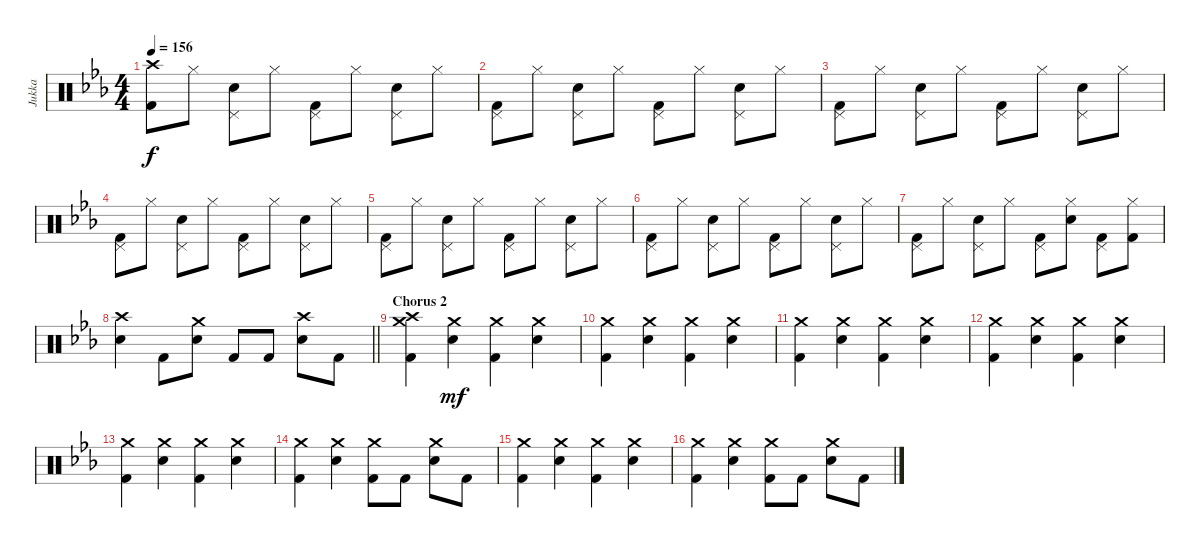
\track ("Jukka" "Jukka") {instrument percussion}
\staff {score}
\articulation defaults
\ts (4 4)
\tempo 156
\clef neutral
\ks cminor
("Crash high (hit)" "Kick (hit) 2").8{dy f} "Hi-Hat (closed)".8 ("Pedal Hi-Hat (hit)" "Electric Snare (hit)").8 "Hi-Hat (closed)".8 ("Pedal Hi-Hat (hit)" "Kick (hit) 2").8 "Hi-Hat (closed)".8 ("Pedal Hi-Hat (hit)" "Electric Snare (hit)").8 "Hi-Hat (closed)".8 |
("Pedal Hi-Hat (hit)" "Kick (hit) 2").8 "Hi-Hat (closed)".8 ("Pedal Hi-Hat (hit)" "Electric Snare (hit)").8 "Hi-Hat (closed)".8 ("Pedal Hi-Hat (hit)" "Kick (hit) 2").8 "Hi-Hat (closed)".8 ("Pedal Hi-Hat (hit)" "Electric Snare (hit)").8 "Hi-Hat (closed)".8 |
("Pedal Hi-Hat (hit)" "Kick (hit) 2").8 "Hi-Hat (closed)".8 ("Pedal Hi-Hat (hit)" "Electric Snare (hit)").8 "Hi-Hat (closed)".8 ("Pedal Hi-Hat (hit)" "Kick (hit) 2").8 "Hi-Hat (closed)".8 ("Pedal Hi-Hat (hit)" "Electric Snare (hit)").8 "Hi-Hat (closed)".8 |
("Pedal Hi-Hat (hit)" "Kick (hit) 2").8 "Hi-Hat (closed)".8 ("Pedal Hi-Hat (hit)" "Electric Snare (hit)").8 "Hi-Hat (closed)".8 ("Pedal Hi-Hat (hit)" "Kick (hit) 2").8 "Hi-Hat (closed)".8 ("Pedal Hi-Hat (hit)" "Electric Snare (hit)").8 "Hi-Hat (closed)".8 |
("Pedal Hi-Hat (hit)" "Kick (hit) 2").8 "Hi-Hat (closed)".8 ("Pedal Hi-Hat (hit)" "Electric Snare (hit)").8 "Hi-Hat (closed)".8 ("Pedal Hi-Hat (hit)" "Kick (hit) 2").8 "Hi-Hat (closed)".8 ("Pedal Hi-Hat (hit)" "Electric Snare (hit)").8 "Hi-Hat (closed)".8 |
("Pedal Hi-Hat (hit)" "Kick (hit) 2").8 "Hi-Hat (closed)".8 ("Pedal Hi-Hat (hit)" "Electric Snare (hit)").8 "Hi-Hat (closed)".8 ("Pedal Hi-Hat (hit)" "Kick (hit) 2").8 "Hi-Hat (closed)".8 ("Pedal Hi-Hat (hit)" "Electric Snare (hit)").8 "Hi-Hat (closed)".8 |
("Pedal Hi-Hat (hit)" "Kick (hit) 2").8 "Hi-Hat (closed)".8 ("Pedal Hi-Hat (hit)" "Electric Snare (hit)").8 "Hi-Hat (closed)".8 ("Pedal Hi-Hat (hit)" "Kick (hit) 2").8 ("Hi-Hat (closed)" "Electric Snare (hit)").8 ("Pedal Hi-Hat (hit)" "Kick (hit) 2").8 ("Hi-Hat (closed)" "Kick (hit) 2").8 |
\barLineRight lightlight
("Crash high (hit)" "Electric Snare (hit)").4 "Kick (hit) 2".8 ("Crash medium (hit)" "Electric Snare (hit)").8 "Kick (hit) 2".8 "Kick (hit) 2".8 ("Crash high (hit)" "Electric Snare (hit)").8 "Kick (hit) 2".8 |
\section ("" "Chorus 2")
("Crash medium (hit)" "Crash high (hit)" "Kick (hit) 2").4 ("Crash medium (hit)" "Electric Snare (hit)").4{dy mf} ("Crash medium (hit)" "Kick (hit) 2").4 ("Crash medium (hit)" "Electric Snare (hit)").4 |
("Crash medium (hit)" "Kick (hit) 2").4 ("Crash medium (hit)" "Electric Snare (hit)").4 ("Crash medium (hit)" "Kick (hit) 2").4 ("Crash medium (hit)" "Electric Snare (hit)").4 |
("Crash medium (hit)" "Kick (hit) 2").4 ("Crash medium (hit)" "Electric Snare (hit)").4 ("Crash medium (hit)" "Kick (hit) 2").4 ("Crash medium (hit)" "Electric Snare (hit)").4 |
("Crash medium (hit)" "Kick (hit) 2").4 ("Crash medium (hit)" "Electric Snare (hit)").4 ("Crash medium (hit)" "Kick (hit) 2").4 ("Crash medium (hit)" "Electric Snare (hit)").4 |
("Crash medium (hit)" "Kick (hit) 2").4 ("Crash medium (hit)" "Electric Snare (hit)").4 ("Crash medium (hit)" "Kick (hit) 2").4 ("Crash medium (hit)" "Electric Snare (hit)").4 |
("Crash medium (hit)" "Kick (hit) 2").4 ("Crash medium (hit)" "Electric Snare (hit)").4 ("Crash medium (hit)" "Kick (hit) 2").8 "Kick (hit) 2".8 ("Crash medium (hit)" "Electric Snare (hit)").8 "Kick (hit) 2".8 |
("Crash medium (hit)" "Kick (hit) 2").4 ("Crash medium (hit)" "Electric Snare (hit)").4 ("Crash medium (hit)" "Kick (hit) 2").4 ("Crash medium (hit)" "Electric Snare (hit)").4 |
("Crash medium (hit)" "Kick (hit) 2").4 ("Crash medium (hit)" "Electric Snare (hit)").4 ("Crash medium (hit)" "Kick (hit) 2").8 "Kick (hit) 2".8 ("Crash medium (hit)" "Electric Snare (hit)").8 "Kick (hit) 2".8
